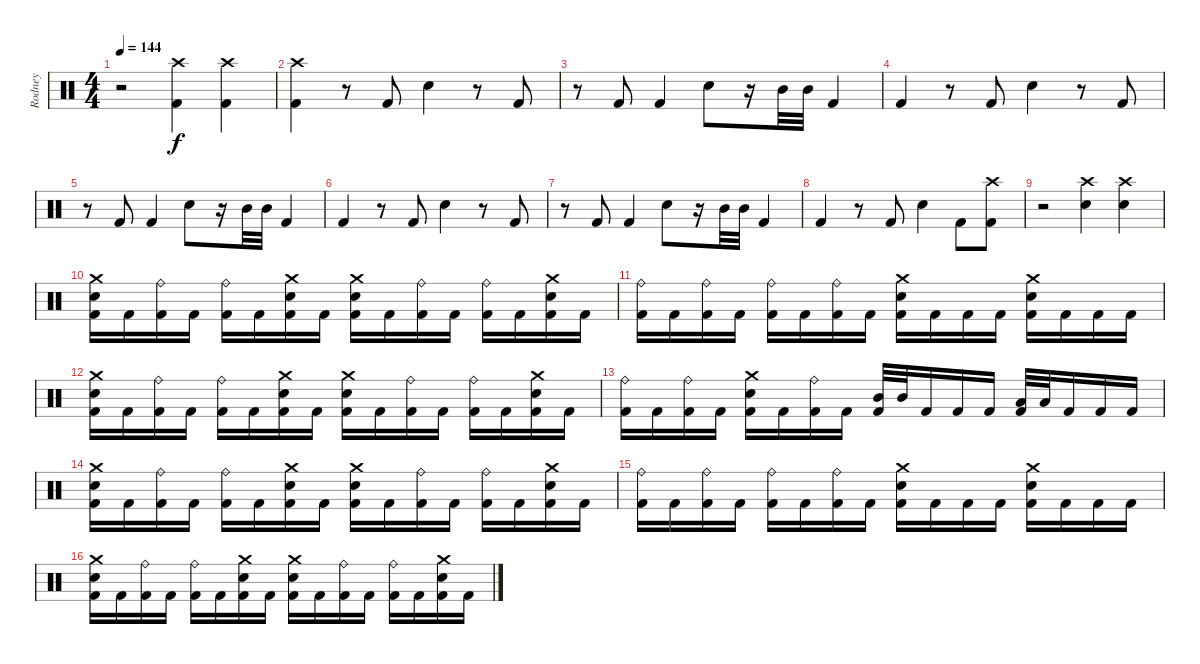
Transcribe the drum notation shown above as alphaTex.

\track ("Rodney" "Rodney") {instrument percussion}
\staff {score}
\articulation defaults
\ts (4 4)
\tempo 144
\clef neutral
\ks c
r.2{dy f} ("Crash high (hit)" "Kick (hit) 2").4 ("Crash high (hit)" "Kick (hit) 2").4 |
("Crash high (hit)" "Kick (hit) 2").4 r.8 "Kick (hit) 2".8 "Snare (hit) 2".4 r.8 "Kick (hit) 2".8 |
r.8 "Kick (hit) 2".8 "Kick (hit) 2".4 "Snare (hit) 2".8 r.16 "Mid Tom (hit)".32 "Mid Tom (hit)".32 "Kick (hit) 2".4 |
"Kick (hit) 2".4 r.8 "Kick (hit) 2".8 "Snare (hit) 2".4 r.8 "Kick (hit) 2".8 |
r.8 "Kick (hit) 2".8 "Kick (hit) 2".4 "Snare (hit) 2".8 r.16 "Mid Tom (hit)".32 "Mid Tom (hit)".32 "Kick (hit) 2".4 |
"Kick (hit) 2".4 r.8 "Kick (hit) 2".8 "Snare (hit) 2".4 r.8 "Kick (hit) 2".8 |
r.8 "Kick (hit) 2".8 "Kick (hit) 2".4 "Snare (hit) 2".8 r.16 "Mid Tom (hit)".32 "Mid Tom (hit)".32 "Kick (hit) 2".4 |
"Kick (hit) 2".4 r.8 "Kick (hit) 2".8 "Snare (hit) 2".4 "Kick (hit) 2".8 ("Crash high (hit)" "Kick (hit) 2").8 |
r.2 ("Crash high (hit)" "Snare (hit) 2").4 ("Crash high (hit)" "Snare (hit) 2").4 |
("Crash medium (hit)" "Snare (hit) 2" "Kick (hit) 2").16 "Kick (hit) 2".16 ("Ride (bell)" "Kick (hit) 2").16 "Kick (hit) 2".16 ("Ride (bell)" "Kick (hit) 2").16 "Kick (hit) 2".16 ("Crash medium (hit)" "Snare (hit) 2" "Kick (hit) 2").16 "Kick (hit) 2".16 ("Crash medium (hit)" "Snare (hit) 2" "Kick (hit) 2").16 "Kick (hit) 2".16 ("Ride (bell)" "Kick (hit) 2").16 "Kick (hit) 2".16 ("Ride (bell)" "Kick (hit) 2").16 "Kick (hit) 2".16 ("Crash medium (hit)" "Snare (hit) 2" "Kick (hit) 2").16 "Kick (hit) 2".16 |
("Ride (bell)" "Kick (hit) 2").16 "Kick (hit) 2".16 ("Ride (bell)" "Kick (hit) 2").16 "Kick (hit) 2".16 ("Ride (bell)" "Kick (hit) 2").16 "Kick (hit) 2".16 ("Ride (bell)" "Kick (hit) 2").16 "Kick (hit) 2".16 ("Crash medium (hit)" "Snare (hit) 2" "Kick (hit) 2").16 "Kick (hit) 2".16 "Kick (hit) 2".16 "Kick (hit) 2".16 ("Crash medium (hit)" "Snare (hit) 2" "Kick (hit) 2").16 "Kick (hit) 2".16 "Kick (hit) 2".16 "Kick (hit) 2".16 |
("Crash medium (hit)" "Snare (hit) 2" "Kick (hit) 2").16 "Kick (hit) 2".16 ("Ride (bell)" "Kick (hit) 2").16 "Kick (hit) 2".16 ("Ride (bell)" "Kick (hit) 2").16 "Kick (hit) 2".16 ("Crash medium (hit)" "Snare (hit) 2" "Kick (hit) 2").16 "Kick (hit) 2".16 ("Crash medium (hit)" "Snare (hit) 2" "Kick (hit) 2").16 "Kick (hit) 2".16 ("Ride (bell)" "Kick (hit) 2").16 "Kick (hit) 2".16 ("Ride (bell)" "Kick (hit) 2").16 "Kick (hit) 2".16 ("Crash medium (hit)" "Snare (hit) 2" "Kick (hit) 2").16 "Kick (hit) 2".16 |
("Ride (bell)" "Kick (hit) 2").16 "Kick (hit) 2".16 ("Ride (bell)" "Kick (hit) 2").16 "Kick (hit) 2".16 ("Crash medium (hit)" "Snare (hit) 2" "Kick (hit) 2").16 "Kick (hit) 2".16 ("Ride (bell)" "Kick (hit) 2").16 "Kick (hit) 2".16 ("Mid Tom (hit)" "Kick (hit) 2").32 "Mid Tom (hit)".32 "Kick (hit) 2".16 "Kick (hit) 2".16 "Kick (hit) 2".16 ("Low Tom (hit)" "Kick (hit) 2").32 "Low Tom (hit)".32 "Kick (hit) 2".16 "Kick (hit) 2".16 "Kick (hit) 2".16 |
("Crash medium (hit)" "Snare (hit) 2" "Kick (hit) 2").16 "Kick (hit) 2".16 ("Ride (bell)" "Kick (hit) 2").16 "Kick (hit) 2".16 ("Ride (bell)" "Kick (hit) 2").16 "Kick (hit) 2".16 ("Crash medium (hit)" "Snare (hit) 2" "Kick (hit) 2").16 "Kick (hit) 2".16 ("Crash medium (hit)" "Snare (hit) 2" "Kick (hit) 2").16 "Kick (hit) 2".16 ("Ride (bell)" "Kick (hit) 2").16 "Kick (hit) 2".16 ("Ride (bell)" "Kick (hit) 2").16 "Kick (hit) 2".16 ("Crash medium (hit)" "Snare (hit) 2" "Kick (hit) 2").16 "Kick (hit) 2".16 |
("Ride (bell)" "Kick (hit) 2").16 "Kick (hit) 2".16 ("Ride (bell)" "Kick (hit) 2").16 "Kick (hit) 2".16 ("Ride (bell)" "Kick (hit) 2").16 "Kick (hit) 2".16 ("Ride (bell)" "Kick (hit) 2").16 "Kick (hit) 2".16 ("Crash medium (hit)" "Snare (hit) 2" "Kick (hit) 2").16 "Kick (hit) 2".16 "Kick (hit) 2".16 "Kick (hit) 2".16 ("Crash medium (hit)" "Snare (hit) 2" "Kick (hit) 2").16 "Kick (hit) 2".16 "Kick (hit) 2".16 "Kick (hit) 2".16 |
("Crash medium (hit)" "Snare (hit) 2" "Kick (hit) 2").16 "Kick (hit) 2".16 ("Ride (bell)" "Kick (hit) 2").16 "Kick (hit) 2".16 ("Ride (bell)" "Kick (hit) 2").16 "Kick (hit) 2".16 ("Crash medium (hit)" "Snare (hit) 2" "Kick (hit) 2").16 "Kick (hit) 2".16 ("Crash medium (hit)" "Snare (hit) 2" "Kick (hit) 2").16 "Kick (hit) 2".16 ("Ride (bell)" "Kick (hit) 2").16 "Kick (hit) 2".16 ("Ride (bell)" "Kick (hit) 2").16 "Kick (hit) 2".16 ("Crash medium (hit)" "Snare (hit) 2" "Kick (hit) 2").16 "Kick (hit) 2".16
